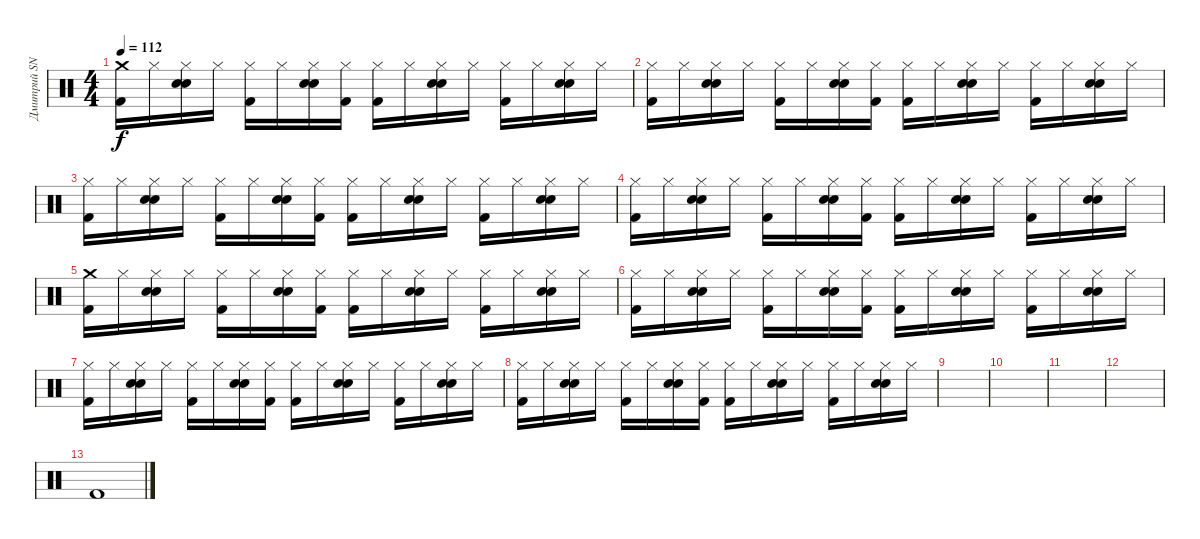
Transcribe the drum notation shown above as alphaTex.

\track ("Дмитрий SNAKE Хакимов" "Дмитрий SN") {instrument percussion}
\staff {score}
\articulation defaults
\ts (4 4)
\tempo 112
\clef neutral
\ks c
("Crash medium (hit)" "Kick (hit) 2").16{dy f} "Hi-Hat (closed)".16 ("Hi-Hat (closed)" "Hand Clap (hit)" "Snare (hit) 2").16 "Hi-Hat (closed)".16 ("Hi-Hat (closed)" "Kick (hit) 2").16 "Hi-Hat (closed)".16 ("Hi-Hat (closed)" "Hand Clap (hit)" "Snare (hit) 2").16 ("Hi-Hat (closed)" "Kick (hit) 2").16 ("Hi-Hat (closed)" "Kick (hit) 2").16 "Hi-Hat (closed)".16 ("Hi-Hat (closed)" "Hand Clap (hit)" "Snare (hit) 2").16 "Hi-Hat (closed)".16 ("Hi-Hat (closed)" "Kick (hit) 2").16 "Hi-Hat (closed)".16 ("Hi-Hat (closed)" "Hand Clap (hit)" "Snare (hit) 2").16 "Hi-Hat (closed)".16 |
("Hi-Hat (closed)" "Kick (hit) 2").16 "Hi-Hat (closed)".16 ("Hi-Hat (closed)" "Hand Clap (hit)" "Snare (hit) 2").16 "Hi-Hat (closed)".16 ("Hi-Hat (closed)" "Kick (hit) 2").16 "Hi-Hat (closed)".16 ("Hi-Hat (closed)" "Hand Clap (hit)" "Snare (hit) 2").16 ("Hi-Hat (closed)" "Kick (hit) 2").16 ("Hi-Hat (closed)" "Kick (hit) 2").16 "Hi-Hat (closed)".16 ("Hi-Hat (closed)" "Hand Clap (hit)" "Snare (hit) 2").16 "Hi-Hat (closed)".16 ("Hi-Hat (closed)" "Kick (hit) 2").16 "Hi-Hat (closed)".16 ("Hi-Hat (closed)" "Hand Clap (hit)" "Snare (hit) 2").16 "Hi-Hat (closed)".16 |
("Hi-Hat (closed)" "Kick (hit) 2").16 "Hi-Hat (closed)".16 ("Hi-Hat (closed)" "Hand Clap (hit)" "Snare (hit) 2").16 "Hi-Hat (closed)".16 ("Hi-Hat (closed)" "Kick (hit) 2").16 "Hi-Hat (closed)".16 ("Hi-Hat (closed)" "Hand Clap (hit)" "Snare (hit) 2").16 ("Hi-Hat (closed)" "Kick (hit) 2").16 ("Hi-Hat (closed)" "Kick (hit) 2").16 "Hi-Hat (closed)".16 ("Hi-Hat (closed)" "Hand Clap (hit)" "Snare (hit) 2").16 "Hi-Hat (closed)".16 ("Hi-Hat (closed)" "Kick (hit) 2").16 "Hi-Hat (closed)".16 ("Hi-Hat (closed)" "Hand Clap (hit)" "Snare (hit) 2").16 "Hi-Hat (closed)".16 |
("Hi-Hat (closed)" "Kick (hit) 2").16 "Hi-Hat (closed)".16 ("Hi-Hat (closed)" "Hand Clap (hit)" "Snare (hit) 2").16 "Hi-Hat (closed)".16 ("Hi-Hat (closed)" "Kick (hit) 2").16 "Hi-Hat (closed)".16 ("Hi-Hat (closed)" "Hand Clap (hit)" "Snare (hit) 2").16 ("Hi-Hat (closed)" "Kick (hit) 2").16 ("Hi-Hat (closed)" "Kick (hit) 2").16 "Hi-Hat (closed)".16 ("Hi-Hat (closed)" "Hand Clap (hit)" "Snare (hit) 2").16 "Hi-Hat (closed)".16 ("Hi-Hat (closed)" "Kick (hit) 2").16 "Hi-Hat (closed)".16 ("Hi-Hat (closed)" "Hand Clap (hit)" "Snare (hit) 2").16 "Hi-Hat (closed)".16 |
("Crash medium (hit)" "Kick (hit) 2").16 "Hi-Hat (closed)".16 ("Hi-Hat (closed)" "Hand Clap (hit)" "Snare (hit) 2").16 "Hi-Hat (closed)".16 ("Hi-Hat (closed)" "Kick (hit) 2").16 "Hi-Hat (closed)".16 ("Hi-Hat (closed)" "Hand Clap (hit)" "Snare (hit) 2").16 ("Hi-Hat (closed)" "Kick (hit) 2").16 ("Hi-Hat (closed)" "Kick (hit) 2").16 "Hi-Hat (closed)".16 ("Hi-Hat (closed)" "Hand Clap (hit)" "Snare (hit) 2").16 "Hi-Hat (closed)".16 ("Hi-Hat (closed)" "Kick (hit) 2").16 "Hi-Hat (closed)".16 ("Hi-Hat (closed)" "Hand Clap (hit)" "Snare (hit) 2").16 "Hi-Hat (closed)".16 |
("Hi-Hat (closed)" "Kick (hit) 2").16 "Hi-Hat (closed)".16 ("Hi-Hat (closed)" "Hand Clap (hit)" "Snare (hit) 2").16 "Hi-Hat (closed)".16 ("Hi-Hat (closed)" "Kick (hit) 2").16 "Hi-Hat (closed)".16 ("Hi-Hat (closed)" "Hand Clap (hit)" "Snare (hit) 2").16 ("Hi-Hat (closed)" "Kick (hit) 2").16 ("Hi-Hat (closed)" "Kick (hit) 2").16 "Hi-Hat (closed)".16 ("Hi-Hat (closed)" "Hand Clap (hit)" "Snare (hit) 2").16 "Hi-Hat (closed)".16 ("Hi-Hat (closed)" "Kick (hit) 2").16 "Hi-Hat (closed)".16 ("Hi-Hat (closed)" "Hand Clap (hit)" "Snare (hit) 2").16 "Hi-Hat (closed)".16 |
("Hi-Hat (closed)" "Kick (hit) 2").16 "Hi-Hat (closed)".16 ("Hi-Hat (closed)" "Hand Clap (hit)" "Snare (hit) 2").16 "Hi-Hat (closed)".16 ("Hi-Hat (closed)" "Kick (hit) 2").16 "Hi-Hat (closed)".16 ("Hi-Hat (closed)" "Hand Clap (hit)" "Snare (hit) 2").16 ("Hi-Hat (closed)" "Kick (hit) 2").16 ("Hi-Hat (closed)" "Kick (hit) 2").16 "Hi-Hat (closed)".16 ("Hi-Hat (closed)" "Hand Clap (hit)" "Snare (hit) 2").16 "Hi-Hat (closed)".16 ("Hi-Hat (closed)" "Kick (hit) 2").16 "Hi-Hat (closed)".16 ("Hi-Hat (closed)" "Hand Clap (hit)" "Snare (hit) 2").16 "Hi-Hat (closed)".16 |
("Hi-Hat (closed)" "Kick (hit) 2").16 "Hi-Hat (closed)".16 ("Hi-Hat (closed)" "Hand Clap (hit)" "Snare (hit) 2").16 "Hi-Hat (closed)".16 ("Hi-Hat (closed)" "Kick (hit) 2").16 "Hi-Hat (closed)".16 ("Hi-Hat (closed)" "Hand Clap (hit)" "Snare (hit) 2").16 ("Hi-Hat (closed)" "Kick (hit) 2").16 ("Hi-Hat (closed)" "Kick (hit) 2").16 "Hi-Hat (closed)".16 ("Hi-Hat (closed)" "Hand Clap (hit)" "Snare (hit) 2").16 "Hi-Hat (closed)".16 ("Hi-Hat (closed)" "Kick (hit) 2").16 "Hi-Hat (closed)".16 ("Hi-Hat (closed)" "Hand Clap (hit)" "Snare (hit) 2").16 "Hi-Hat (closed)".16 |
|
|
|
|
"Kick (hit) 2".1
